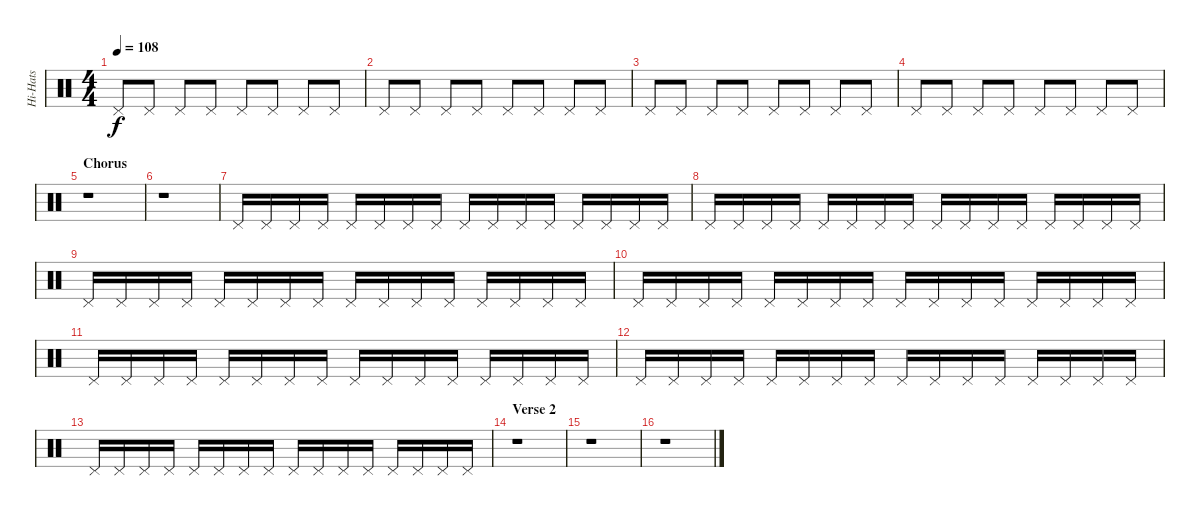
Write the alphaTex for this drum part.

\track ("Hi-Hats" "Hi-Hats") {instrument percussion}
\staff {score}
\articulation defaults
\ts (4 4)
\tempo 108
\clef neutral
\ks c "Pedal Hi-Hat (hit)".8{dy f} "Pedal Hi-Hat (hit)".8 "Pedal Hi-Hat (hit)".8 "Pedal Hi-Hat (hit)".8 "Pedal Hi-Hat (hit)".8 "Pedal Hi-Hat (hit)".8 "Pedal Hi-Hat (hit)".8 "Pedal Hi-Hat (hit)".8
|
"Pedal Hi-Hat (hit)".8 "Pedal Hi-Hat (hit)".8 "Pedal Hi-Hat (hit)".8 "Pedal Hi-Hat (hit)".8 "Pedal Hi-Hat (hit)".8 "Pedal Hi-Hat (hit)".8 "Pedal Hi-Hat (hit)".8 "Pedal Hi-Hat (hit)".8 |
"Pedal Hi-Hat (hit)".8 "Pedal Hi-Hat (hit)".8 "Pedal Hi-Hat (hit)".8 "Pedal Hi-Hat (hit)".8 "Pedal Hi-Hat (hit)".8 "Pedal Hi-Hat (hit)".8 "Pedal Hi-Hat (hit)".8 "Pedal Hi-Hat (hit)".8 |
"Pedal Hi-Hat (hit)".8 "Pedal Hi-Hat (hit)".8 "Pedal Hi-Hat (hit)".8 "Pedal Hi-Hat (hit)".8 "Pedal Hi-Hat (hit)".8 "Pedal Hi-Hat (hit)".8 "Pedal Hi-Hat (hit)".8 "Pedal Hi-Hat (hit)".8 |
\section ("" "Chorus")
r.1 |
r.1 |
"Pedal Hi-Hat (hit)".16 "Pedal Hi-Hat (hit)".16 "Pedal Hi-Hat (hit)".16 "Pedal Hi-Hat (hit)".16 "Pedal Hi-Hat (hit)".16 "Pedal Hi-Hat (hit)".16 "Pedal Hi-Hat (hit)".16 "Pedal Hi-Hat (hit)".16 "Pedal Hi-Hat (hit)".16 "Pedal Hi-Hat (hit)".16 "Pedal Hi-Hat (hit)".16 "Pedal Hi-Hat (hit)".16 "Pedal Hi-Hat (hit)".16 "Pedal Hi-Hat (hit)".16 "Pedal Hi-Hat (hit)".16 "Pedal Hi-Hat (hit)".16 |
"Pedal Hi-Hat (hit)".16 "Pedal Hi-Hat (hit)".16 "Pedal Hi-Hat (hit)".16 "Pedal Hi-Hat (hit)".16 "Pedal Hi-Hat (hit)".16 "Pedal Hi-Hat (hit)".16 "Pedal Hi-Hat (hit)".16 "Pedal Hi-Hat (hit)".16 "Pedal Hi-Hat (hit)".16 "Pedal Hi-Hat (hit)".16 "Pedal Hi-Hat (hit)".16 "Pedal Hi-Hat (hit)".16 "Pedal Hi-Hat (hit)".16 "Pedal Hi-Hat (hit)".16 "Pedal Hi-Hat (hit)".16 "Pedal Hi-Hat (hit)".16 |
"Pedal Hi-Hat (hit)".16 "Pedal Hi-Hat (hit)".16 "Pedal Hi-Hat (hit)".16 "Pedal Hi-Hat (hit)".16 "Pedal Hi-Hat (hit)".16 "Pedal Hi-Hat (hit)".16 "Pedal Hi-Hat (hit)".16 "Pedal Hi-Hat (hit)".16 "Pedal Hi-Hat (hit)".16 "Pedal Hi-Hat (hit)".16 "Pedal Hi-Hat (hit)".16 "Pedal Hi-Hat (hit)".16 "Pedal Hi-Hat (hit)".16 "Pedal Hi-Hat (hit)".16 "Pedal Hi-Hat (hit)".16 "Pedal Hi-Hat (hit)".16 |
"Pedal Hi-Hat (hit)".16 "Pedal Hi-Hat (hit)".16 "Pedal Hi-Hat (hit)".16 "Pedal Hi-Hat (hit)".16 "Pedal Hi-Hat (hit)".16 "Pedal Hi-Hat (hit)".16 "Pedal Hi-Hat (hit)".16 "Pedal Hi-Hat (hit)".16 "Pedal Hi-Hat (hit)".16 "Pedal Hi-Hat (hit)".16 "Pedal Hi-Hat (hit)".16 "Pedal Hi-Hat (hit)".16 "Pedal Hi-Hat (hit)".16 "Pedal Hi-Hat (hit)".16 "Pedal Hi-Hat (hit)".16 "Pedal Hi-Hat (hit)".16 |
"Pedal Hi-Hat (hit)".16 "Pedal Hi-Hat (hit)".16 "Pedal Hi-Hat (hit)".16 "Pedal Hi-Hat (hit)".16 "Pedal Hi-Hat (hit)".16 "Pedal Hi-Hat (hit)".16 "Pedal Hi-Hat (hit)".16 "Pedal Hi-Hat (hit)".16 "Pedal Hi-Hat (hit)".16 "Pedal Hi-Hat (hit)".16 "Pedal Hi-Hat (hit)".16 "Pedal Hi-Hat (hit)".16 "Pedal Hi-Hat (hit)".16 "Pedal Hi-Hat (hit)".16 "Pedal Hi-Hat (hit)".16 "Pedal Hi-Hat (hit)".16 |
"Pedal Hi-Hat (hit)".16 "Pedal Hi-Hat (hit)".16 "Pedal Hi-Hat (hit)".16 "Pedal Hi-Hat (hit)".16 "Pedal Hi-Hat (hit)".16 "Pedal Hi-Hat (hit)".16 "Pedal Hi-Hat (hit)".16 "Pedal Hi-Hat (hit)".16 "Pedal Hi-Hat (hit)".16 "Pedal Hi-Hat (hit)".16 "Pedal Hi-Hat (hit)".16 "Pedal Hi-Hat (hit)".16 "Pedal Hi-Hat (hit)".16 "Pedal Hi-Hat (hit)".16 "Pedal Hi-Hat (hit)".16 "Pedal Hi-Hat (hit)".16 |
"Pedal Hi-Hat (hit)".16 "Pedal Hi-Hat (hit)".16 "Pedal Hi-Hat (hit)".16 "Pedal Hi-Hat (hit)".16 "Pedal Hi-Hat (hit)".16 "Pedal Hi-Hat (hit)".16 "Pedal Hi-Hat (hit)".16 "Pedal Hi-Hat (hit)".16 "Pedal Hi-Hat (hit)".16 "Pedal Hi-Hat (hit)".16 "Pedal Hi-Hat (hit)".16 "Pedal Hi-Hat (hit)".16 "Pedal Hi-Hat (hit)".16 "Pedal Hi-Hat (hit)".16 "Pedal Hi-Hat (hit)".16 "Pedal Hi-Hat (hit)".16 |
\section ("" "Verse 2")
r.1 |
r.1 |
r.1
